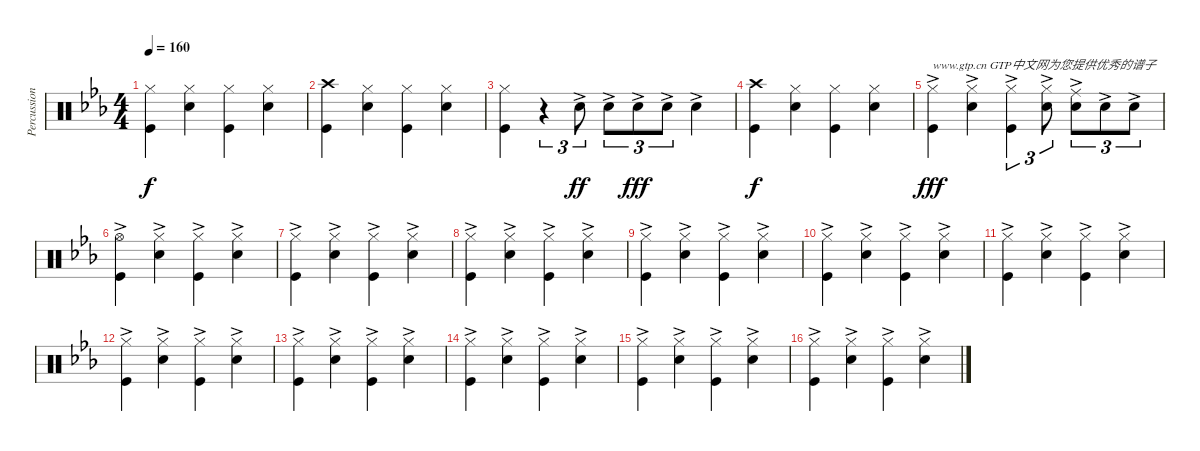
\track ("Percussion" "Percussion") {instrument percussion}
\staff {score}
\articulation defaults
\ts (4 4)
\tempo 160
\clef neutral
\ks eb
("Hi-Hat (closed)" "Kick (hit)").4{dy f} ("Hi-Hat (closed)" "Snare (hit) 2").4 ("Hi-Hat (closed)" "Kick (hit)").4 ("Hi-Hat (closed)" "Snare (hit) 2").4 |
("Kick (hit)" "Crash high (hit)").4 ("Hi-Hat (closed)" "Snare (hit) 2").4 ("Hi-Hat (closed)" "Kick (hit)").4 ("Hi-Hat (closed)" "Snare (hit) 2").4 |
("Kick (hit)" "Hi-Hat (closed)").4 r.4{tu (3 2)} "Snare (hit) 2"{ac}.8{tu (3 2) dy ff} "Snare (hit) 2"{ac}.8{tu (3 2)} "Snare (hit) 2"{ac}.8{tu (3 2) dy fff} "Snare (hit) 2"{ac}.8{tu (3 2)} "Snare (hit) 2"{ac}.4 |
("Crash high (hit)" "Kick (hit)").4{dy f} ("Hi-Hat (closed)" "Snare (hit) 2").4 ("Hi-Hat (closed)" "Kick (hit)").4 ("Hi-Hat (closed)" "Snare (hit) 2").4 |
("Kick (hit)"{ac} "Hi-Hat (closed)").4{txt "www.gtp.cn GTP中文网为您提供优秀的谱子" dy fff} ("Snare (hit) 2"{ac} "Hi-Hat (closed)").4 ("Kick (hit)"{ac} "Hi-Hat (closed)").4{tu (3 2)} ("Snare (hit) 2"{ac} "Hi-Hat (closed)").8{tu (3 2)} ("Snare (hit) 2"{ac} "Ride (middle)"{ac}).8{tu (3 2)} "Snare (hit) 2"{ac}.8{tu (3 2)} "Snare (hit) 2"{ac}.8{tu (3 2)} |
("Kick (hit)"{ac} "Hi-Hat (open)"{ac}).4 ("Snare (hit) 2"{ac} "Hi-Hat (closed)").4 ("Kick (hit)"{ac} "Hi-Hat (closed)").4 ("Snare (hit) 2"{ac} "Hi-Hat (closed)").4 |
("Kick (hit)"{ac} "Hi-Hat (closed)").4 ("Snare (hit) 2"{ac} "Hi-Hat (closed)").4 ("Kick (hit)"{ac} "Hi-Hat (closed)").4 ("Snare (hit) 2"{ac} "Hi-Hat (closed)").4 |
("Kick (hit)"{ac} "Hi-Hat (closed)").4 ("Snare (hit) 2"{ac} "Hi-Hat (closed)").4 ("Kick (hit)"{ac} "Hi-Hat (closed)").4 ("Snare (hit) 2"{ac} "Hi-Hat (closed)").4 |
("Kick (hit)"{ac} "Hi-Hat (closed)").4 ("Snare (hit) 2"{ac} "Hi-Hat (closed)").4 ("Kick (hit)"{ac} "Hi-Hat (closed)").4 ("Snare (hit) 2"{ac} "Hi-Hat (closed)").4 |
("Kick (hit)"{ac} "Hi-Hat (closed)").4 ("Snare (hit) 2"{ac} "Hi-Hat (closed)").4 ("Kick (hit)"{ac} "Hi-Hat (closed)").4 ("Snare (hit) 2"{ac} "Hi-Hat (closed)").4 |
("Kick (hit)"{ac} "Hi-Hat (closed)").4 ("Snare (hit) 2"{ac} "Hi-Hat (closed)").4 ("Kick (hit)"{ac} "Hi-Hat (closed)").4 ("Snare (hit) 2"{ac} "Hi-Hat (closed)").4 |
("Kick (hit)"{ac} "Hi-Hat (closed)").4 ("Snare (hit) 2"{ac} "Hi-Hat (closed)").4 ("Kick (hit)"{ac} "Hi-Hat (closed)").4 ("Snare (hit) 2"{ac} "Hi-Hat (closed)").4 |
("Kick (hit)"{ac} "Hi-Hat (closed)").4 ("Snare (hit) 2"{ac} "Hi-Hat (closed)").4 ("Kick (hit)"{ac} "Hi-Hat (closed)").4 ("Snare (hit) 2"{ac} "Hi-Hat (closed)").4 |
("Kick (hit)"{ac} "Hi-Hat (closed)").4 ("Snare (hit) 2"{ac} "Hi-Hat (closed)").4 ("Kick (hit)"{ac} "Hi-Hat (closed)").4 ("Snare (hit) 2"{ac} "Hi-Hat (closed)").4 |
("Kick (hit)"{ac} "Hi-Hat (closed)").4 ("Snare (hit) 2"{ac} "Hi-Hat (closed)").4 ("Kick (hit)"{ac} "Hi-Hat (closed)").4 ("Snare (hit) 2"{ac} "Hi-Hat (closed)").4 |
("Kick (hit)"{ac} "Hi-Hat (closed)").4 ("Snare (hit) 2"{ac} "Hi-Hat (closed)").4 ("Kick (hit)"{ac} "Hi-Hat (closed)").4 ("Snare (hit) 2"{ac} "Hi-Hat (closed)").4
